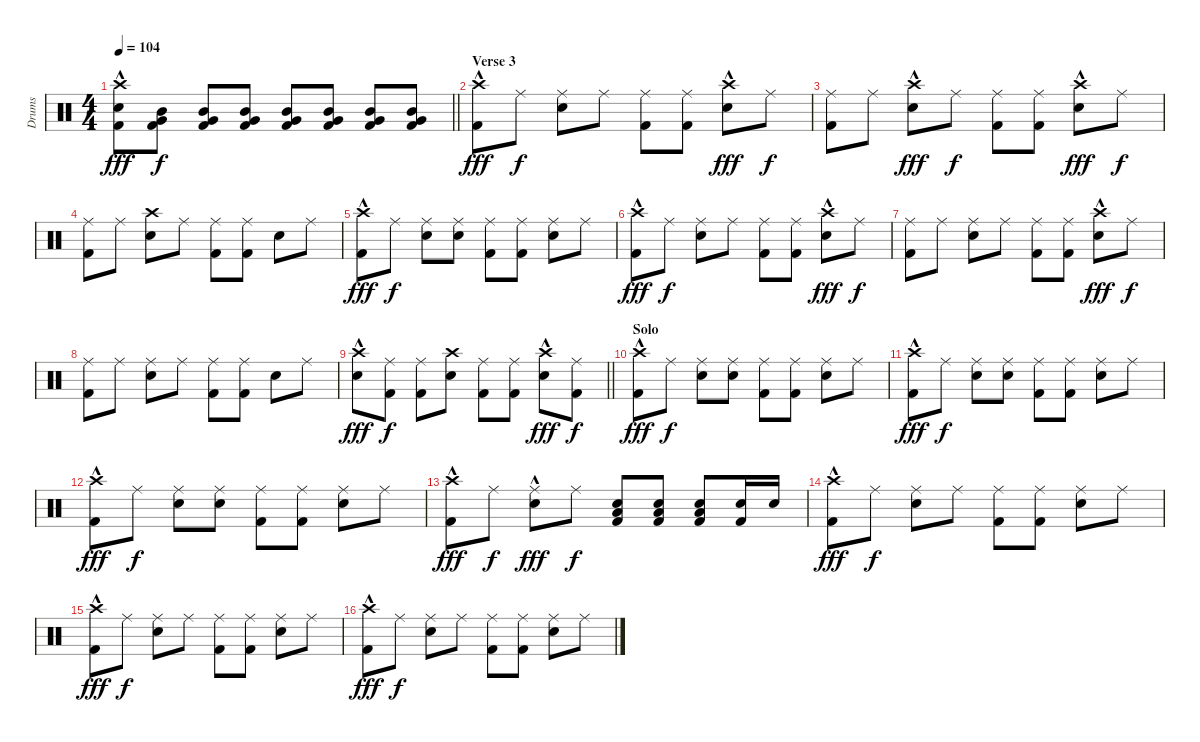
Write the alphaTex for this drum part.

\track ("Drums" "Drums") {instrument percussion}
\staff {score}
\articulation defaults
\ts (4 4)
\tempo 104
\clef neutral
\barLineRight lightlight
\ks c
("Crash high (hit)"{hac} "Kick (hit) 2" "Snare (hit) 2").8{dy fff} ("Mid Tom (hit)" "Kick (hit) 2" "Very Low Tom (hit)").8{dy f} ("Mid Tom (hit)" "Kick (hit) 2" "Very Low Tom (hit)").8 ("Mid Tom (hit)" "Kick (hit) 2" "Very Low Tom (hit)").8 ("Mid Tom (hit)" "Kick (hit) 2" "Very Low Tom (hit)").8 ("Mid Tom (hit)" "Kick (hit) 2" "Very Low Tom (hit)").8 ("Mid Tom (hit)" "Kick (hit) 2" "Very Low Tom (hit)").8 ("Mid Tom (hit)" "Kick (hit) 2" "Very Low Tom (hit)").8 |
\section ("" "Verse 3")
("Crash high (hit)"{hac} "Kick (hit) 2").8{dy fff} "Ride (middle)".8{dy f} ("Ride (middle)" "Snare (hit) 2").8 "Ride (middle)".8 ("Ride (middle)" "Kick (hit) 2").8 ("Ride (middle)" "Kick (hit) 2").8 ("Crash high (hit)"{hac} "Snare (hit) 2").8{dy fff} "Ride (middle)".8{dy f} |
("Ride (middle)" "Kick (hit) 2").8 "Ride (middle)".8 ("Crash high (hit)"{hac} "Snare (hit) 2").8{dy fff} "Ride (middle)".8{dy f} ("Ride (middle)" "Kick (hit) 2").8 ("Ride (middle)" "Kick (hit) 2").8 ("Crash high (hit)"{hac} "Snare (hit) 2").8{dy fff} "Ride (middle)".8{dy f} |
("Ride (middle)" "Kick (hit) 2").8 "Ride (middle)".8 ("Crash high (hit)" "Snare (hit) 2").8 "Ride (middle)".8 ("Ride (middle)" "Kick (hit) 2").8 ("Ride (middle)" "Kick (hit) 2").8 "Snare (hit) 2".8 "Ride (middle)".8 |
("Crash high (hit)"{hac} "Kick (hit) 2").8{dy fff} "Ride (middle)".8{dy f} ("Ride (middle)" "Snare (hit) 2").8 ("Ride (middle)" "Snare (hit) 2").8 ("Ride (middle)" "Kick (hit) 2").8 ("Ride (middle)" "Kick (hit) 2").8 ("Ride (middle)" "Snare (hit) 2").8 "Ride (middle)".8 |
("Crash high (hit)"{hac} "Kick (hit) 2").8{dy fff} "Ride (middle)".8{dy f} ("Ride (middle)" "Snare (hit) 2").8 "Ride (middle)".8 ("Ride (middle)" "Kick (hit) 2").8 ("Ride (middle)" "Kick (hit) 2").8 ("Crash high (hit)"{hac} "Snare (hit) 2").8{dy fff} "Ride (middle)".8{dy f} |
("Ride (middle)" "Kick (hit) 2").8 "Ride (middle)".8 ("Ride (middle)" "Snare (hit) 2").8 "Ride (middle)".8 ("Ride (middle)" "Kick (hit) 2").8 ("Ride (middle)" "Kick (hit) 2").8 ("Crash high (hit)"{hac} "Snare (hit) 2").8{dy fff} "Ride (middle)".8{dy f} |
("Ride (middle)" "Kick (hit) 2").8 "Ride (middle)".8 ("Ride (middle)" "Snare (hit) 2").8 "Ride (middle)".8 ("Ride (middle)" "Kick (hit) 2").8 ("Ride (middle)" "Kick (hit) 2").8 "Snare (hit) 2".8 "Ride (middle)".8 |
\barLineRight lightlight
("Crash high (hit)"{hac} "Snare (hit) 2").8{dy fff} ("Ride (middle)" "Kick (hit) 2").8{dy f} ("Ride (middle)" "Kick (hit) 2").8 ("Crash high (hit)" "Snare (hit) 2").8 ("Ride (middle)" "Kick (hit) 2").8 ("Ride (middle)" "Kick (hit) 2").8 ("Crash high (hit)"{hac} "Snare (hit) 2").8{dy fff} ("Ride (middle)" "Kick (hit) 2").8{dy f} |
\section ("" "Solo")
("Crash high (hit)"{hac} "Kick (hit) 2").8{dy fff} "Ride (middle)".8{dy f} ("Ride (middle)" "Snare (hit) 2").8 ("Ride (middle)" "Snare (hit) 2").8 ("Ride (middle)" "Kick (hit) 2").8 ("Ride (middle)" "Kick (hit) 2").8 ("Ride (middle)" "Snare (hit) 2").8 "Ride (middle)".8 |
("Crash high (hit)"{hac} "Kick (hit) 2").8{dy fff} "Ride (middle)".8{dy f} ("Ride (middle)" "Snare (hit) 2").8 ("Ride (middle)" "Snare (hit) 2").8 ("Ride (middle)" "Kick (hit) 2").8 ("Ride (middle)" "Kick (hit) 2").8 ("Ride (middle)" "Snare (hit) 2").8 "Ride (middle)".8 |
("Crash high (hit)"{hac} "Kick (hit) 2").8{dy fff} "Ride (middle)".8{dy f} ("Ride (middle)" "Snare (hit) 2").8 ("Ride (middle)" "Snare (hit) 2").8 ("Ride (middle)" "Kick (hit) 2").8 ("Ride (middle)" "Kick (hit) 2").8 ("Ride (middle)" "Snare (hit) 2").8 "Ride (middle)".8 |
("Crash high (hit)"{hac} "Kick (hit) 2").8{dy fff} "Ride (middle)".8{dy f} ("Ride (middle)"{hac} "Snare (hit) 2").8{dy fff} "Ride (middle)".8{dy f} ("Kick (hit) 2" "Low Floor Tom (hit)" "Snare (hit) 2").8 ("Kick (hit) 2" "Low Floor Tom (hit)" "Snare (hit) 2").8 ("Kick (hit) 2" "Low Floor Tom (hit)" "Snare (hit) 2").8 ("Kick (hit) 2" "Snare (hit) 2").16 "Snare (hit) 2".16 |
("Crash high (hit)"{hac} "Kick (hit) 2").8{dy fff} "Ride (middle)".8{dy f} ("Ride (middle)" "Snare (hit) 2").8 "Ride (middle)".8 ("Ride (middle)" "Kick (hit) 2").8 ("Ride (middle)" "Kick (hit) 2").8 ("Ride (middle)" "Snare (hit) 2").8 "Ride (middle)".8 |
("Crash high (hit)"{hac} "Kick (hit) 2").8{dy fff} "Ride (middle)".8{dy f} ("Ride (middle)" "Snare (hit) 2").8 "Ride (middle)".8 ("Ride (middle)" "Kick (hit) 2").8 ("Ride (middle)" "Kick (hit) 2").8 ("Ride (middle)" "Snare (hit) 2").8 "Ride (middle)".8 |
("Crash high (hit)"{hac} "Kick (hit) 2").8{dy fff} "Ride (middle)".8{dy f} ("Ride (middle)" "Snare (hit) 2").8 "Ride (middle)".8 ("Ride (middle)" "Kick (hit) 2").8 ("Ride (middle)" "Kick (hit) 2").8 ("Ride (middle)" "Snare (hit) 2").8 "Ride (middle)".8
